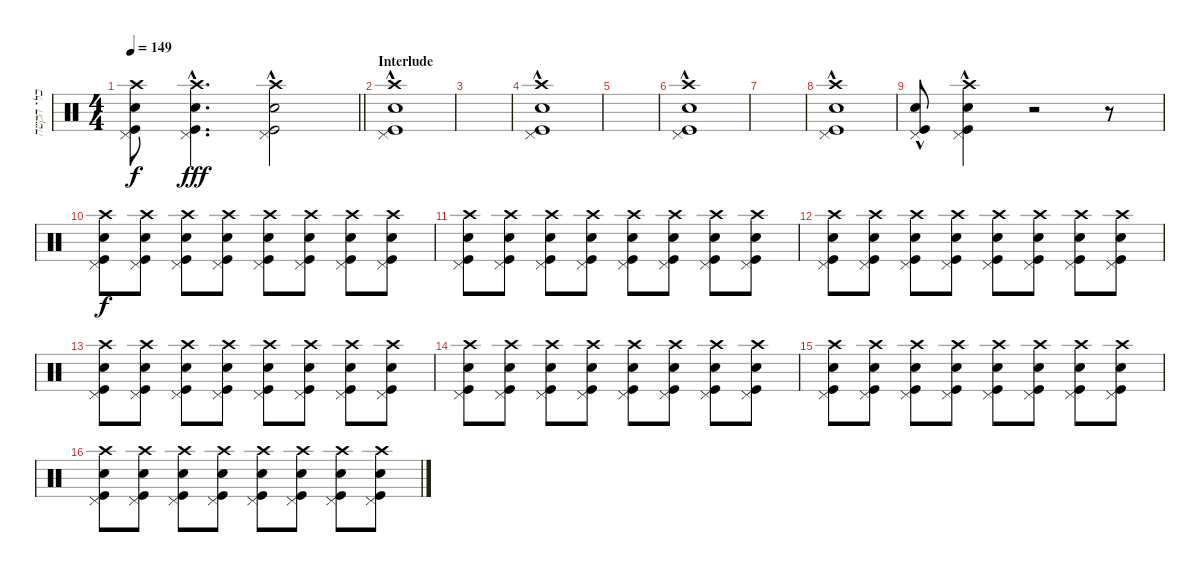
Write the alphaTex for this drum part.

\track ("כלי הקשה" "כלי הקשה") {instrument percussion}
\staff {score}
\articulation defaults
\ts (4 4)
\tempo 149
\clef neutral
\barLineRight lightlight
\ks c
("Electric Snare (hit)"{t} "Kick (hit)"{t} "Pedal Hi-Hat (hit)"{t} "Crash high (hit)"{t}).8{dy f} ("Electric Snare (hit)"{hac} "Kick (hit)"{hac} "Pedal Hi-Hat (hit)"{hac} "Crash high (hit)"{hac}).4{d dy fff} ("Electric Snare (hit)"{hac} "Kick (hit)"{hac} "Pedal Hi-Hat (hit)"{hac} "Crash high (hit)"{hac}).2 |
\section ("" "Interlude")
("Electric Snare (hit)"{hac} "Kick (hit)"{hac} "Pedal Hi-Hat (hit)"{hac} "Crash high (hit)"{hac}).1 |
|
("Electric Snare (hit)"{hac} "Kick (hit)"{hac} "Pedal Hi-Hat (hit)"{hac} "Crash high (hit)"{hac}).1 |
|
("Electric Snare (hit)"{hac} "Kick (hit)"{hac} "Pedal Hi-Hat (hit)"{hac} "Crash high (hit)"{hac}).1 |
|
("Electric Snare (hit)"{hac} "Kick (hit)"{hac} "Pedal Hi-Hat (hit)"{hac} "Crash high (hit)"{hac}).1 |
("Electric Snare (hit)"{hac} "Kick (hit)"{hac} "Pedal Hi-Hat (hit)"{hac}).8 ("Electric Snare (hit)"{hac} "Kick (hit)"{hac} "Pedal Hi-Hat (hit)"{hac} "Crash high (hit)").4 r.2 r.8 |
("Electric Snare (hit)" "Kick (hit)" "Pedal Hi-Hat (hit)" "Crash high (hit)").8{dy f} ("Electric Snare (hit)" "Kick (hit)" "Pedal Hi-Hat (hit)" "Crash high (hit)").8 ("Electric Snare (hit)" "Kick (hit)" "Pedal Hi-Hat (hit)" "Crash high (hit)").8 ("Electric Snare (hit)" "Kick (hit)" "Pedal Hi-Hat (hit)" "Crash high (hit)").8 ("Electric Snare (hit)" "Kick (hit)" "Pedal Hi-Hat (hit)" "Crash high (hit)").8 ("Electric Snare (hit)" "Kick (hit)" "Pedal Hi-Hat (hit)" "Crash high (hit)").8 ("Electric Snare (hit)" "Kick (hit)" "Pedal Hi-Hat (hit)" "Crash high (hit)").8 ("Electric Snare (hit)" "Kick (hit)" "Pedal Hi-Hat (hit)" "Crash high (hit)").8 |
("Electric Snare (hit)" "Kick (hit)" "Pedal Hi-Hat (hit)" "Crash high (hit)").8 ("Electric Snare (hit)" "Kick (hit)" "Pedal Hi-Hat (hit)" "Crash high (hit)").8 ("Electric Snare (hit)" "Kick (hit)" "Pedal Hi-Hat (hit)" "Crash high (hit)").8 ("Electric Snare (hit)" "Kick (hit)" "Pedal Hi-Hat (hit)" "Crash high (hit)").8 ("Electric Snare (hit)" "Kick (hit)" "Pedal Hi-Hat (hit)" "Crash high (hit)").8 ("Electric Snare (hit)" "Kick (hit)" "Pedal Hi-Hat (hit)" "Crash high (hit)").8 ("Electric Snare (hit)" "Kick (hit)" "Pedal Hi-Hat (hit)" "Crash high (hit)").8 ("Electric Snare (hit)" "Kick (hit)" "Pedal Hi-Hat (hit)" "Crash high (hit)").8 |
("Electric Snare (hit)" "Kick (hit)" "Pedal Hi-Hat (hit)" "Crash high (hit)").8 ("Electric Snare (hit)" "Kick (hit)" "Pedal Hi-Hat (hit)" "Crash high (hit)").8 ("Electric Snare (hit)" "Kick (hit)" "Pedal Hi-Hat (hit)" "Crash high (hit)").8 ("Electric Snare (hit)" "Kick (hit)" "Pedal Hi-Hat (hit)" "Crash high (hit)").8 ("Electric Snare (hit)" "Kick (hit)" "Pedal Hi-Hat (hit)" "Crash high (hit)").8 ("Electric Snare (hit)" "Kick (hit)" "Pedal Hi-Hat (hit)" "Crash high (hit)").8 ("Electric Snare (hit)" "Kick (hit)" "Pedal Hi-Hat (hit)" "Crash high (hit)").8 ("Electric Snare (hit)" "Kick (hit)" "Pedal Hi-Hat (hit)" "Crash high (hit)").8 |
("Electric Snare (hit)" "Kick (hit)" "Pedal Hi-Hat (hit)" "Crash high (hit)").8 ("Electric Snare (hit)" "Kick (hit)" "Pedal Hi-Hat (hit)" "Crash high (hit)").8 ("Electric Snare (hit)" "Kick (hit)" "Pedal Hi-Hat (hit)" "Crash high (hit)").8 ("Electric Snare (hit)" "Kick (hit)" "Pedal Hi-Hat (hit)" "Crash high (hit)").8 ("Electric Snare (hit)" "Kick (hit)" "Pedal Hi-Hat (hit)" "Crash high (hit)").8 ("Electric Snare (hit)" "Kick (hit)" "Pedal Hi-Hat (hit)" "Crash high (hit)").8 ("Electric Snare (hit)" "Kick (hit)" "Pedal Hi-Hat (hit)" "Crash high (hit)").8 ("Electric Snare (hit)" "Kick (hit)" "Pedal Hi-Hat (hit)" "Crash high (hit)").8 |
("Electric Snare (hit)" "Kick (hit)" "Pedal Hi-Hat (hit)" "Crash high (hit)").8 ("Electric Snare (hit)" "Kick (hit)" "Pedal Hi-Hat (hit)" "Crash high (hit)").8 ("Electric Snare (hit)" "Kick (hit)" "Pedal Hi-Hat (hit)" "Crash high (hit)").8 ("Electric Snare (hit)" "Kick (hit)" "Pedal Hi-Hat (hit)" "Crash high (hit)").8 ("Electric Snare (hit)" "Kick (hit)" "Pedal Hi-Hat (hit)" "Crash high (hit)").8 ("Electric Snare (hit)" "Kick (hit)" "Pedal Hi-Hat (hit)" "Crash high (hit)").8 ("Electric Snare (hit)" "Kick (hit)" "Pedal Hi-Hat (hit)" "Crash high (hit)").8 ("Electric Snare (hit)" "Kick (hit)" "Pedal Hi-Hat (hit)" "Crash high (hit)").8 |
("Electric Snare (hit)" "Kick (hit)" "Pedal Hi-Hat (hit)" "Crash high (hit)").8 ("Electric Snare (hit)" "Kick (hit)" "Pedal Hi-Hat (hit)" "Crash high (hit)").8 ("Electric Snare (hit)" "Kick (hit)" "Pedal Hi-Hat (hit)" "Crash high (hit)").8 ("Electric Snare (hit)" "Kick (hit)" "Pedal Hi-Hat (hit)" "Crash high (hit)").8 ("Electric Snare (hit)" "Kick (hit)" "Pedal Hi-Hat (hit)" "Crash high (hit)").8 ("Electric Snare (hit)" "Kick (hit)" "Pedal Hi-Hat (hit)" "Crash high (hit)").8 ("Electric Snare (hit)" "Kick (hit)" "Pedal Hi-Hat (hit)" "Crash high (hit)").8 ("Electric Snare (hit)" "Kick (hit)" "Pedal Hi-Hat (hit)" "Crash high (hit)").8 |
("Electric Snare (hit)" "Kick (hit)" "Pedal Hi-Hat (hit)" "Crash high (hit)").8 ("Electric Snare (hit)" "Kick (hit)" "Pedal Hi-Hat (hit)" "Crash high (hit)").8 ("Electric Snare (hit)" "Kick (hit)" "Pedal Hi-Hat (hit)" "Crash high (hit)").8 ("Electric Snare (hit)" "Kick (hit)" "Pedal Hi-Hat (hit)" "Crash high (hit)").8 ("Electric Snare (hit)" "Kick (hit)" "Pedal Hi-Hat (hit)" "Crash high (hit)").8 ("Electric Snare (hit)" "Kick (hit)" "Pedal Hi-Hat (hit)" "Crash high (hit)").8 ("Electric Snare (hit)" "Kick (hit)" "Pedal Hi-Hat (hit)" "Crash high (hit)").8 ("Electric Snare (hit)" "Kick (hit)" "Pedal Hi-Hat (hit)" "Crash high (hit)").8
